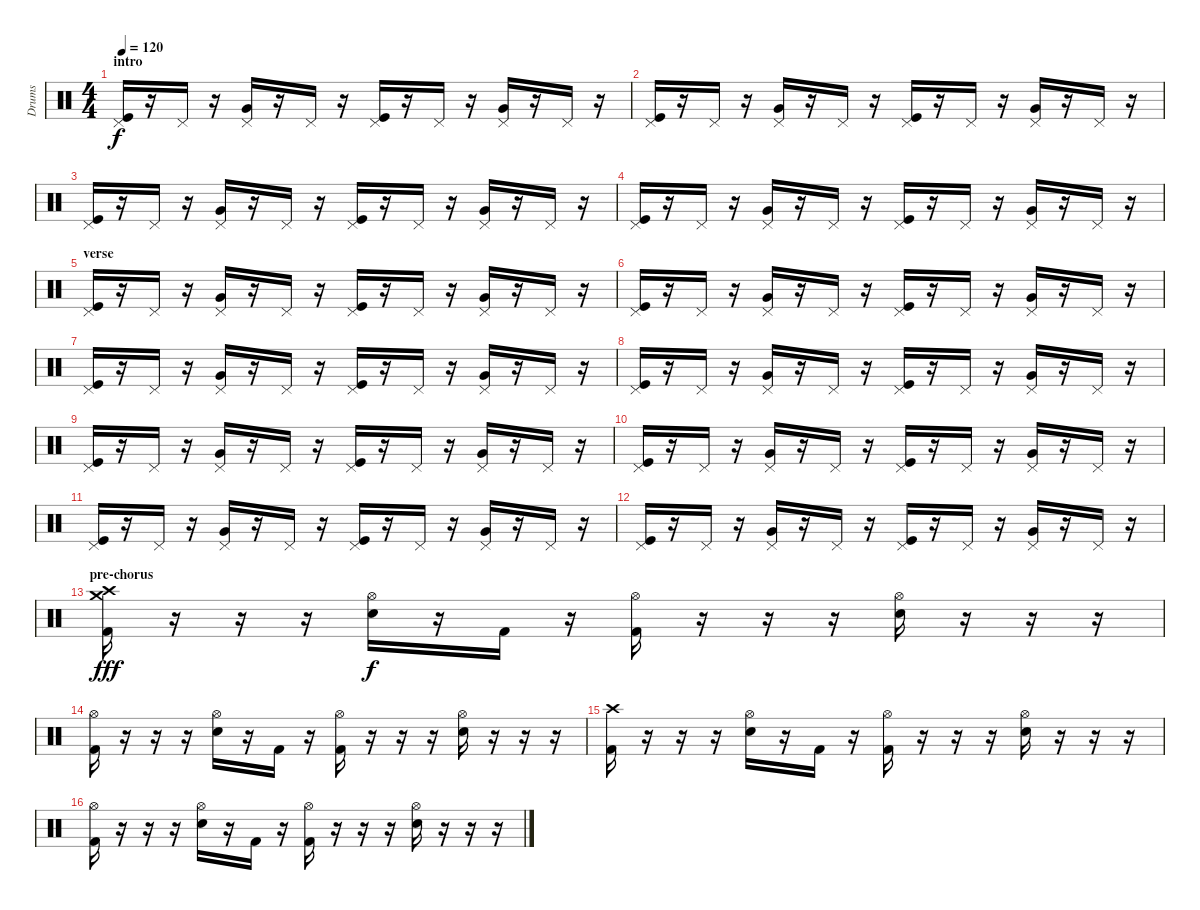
\track ("Drums" "Drums") {instrument percussion}
\staff {score}
\articulation defaults
\ts (4 4)
\section ("" "intro")
\tempo 120
\clef neutral
\ks c
("Pedal Hi-Hat (hit)" "Kick (hit)").16{dy f} r.16 "Pedal Hi-Hat (hit)".16 r.16 ("Pedal Hi-Hat (hit)" "Very Low Tom (hit)").16 r.16 "Pedal Hi-Hat (hit)".16 r.16 ("Pedal Hi-Hat (hit)" "Kick (hit)").16 r.16 "Pedal Hi-Hat (hit)".16 r.16 ("Pedal Hi-Hat (hit)" "Very Low Tom (hit)").16 r.16 "Pedal Hi-Hat (hit)".16 r.16 |
("Pedal Hi-Hat (hit)" "Kick (hit)").16 r.16 "Pedal Hi-Hat (hit)".16 r.16 ("Pedal Hi-Hat (hit)" "Very Low Tom (hit)").16 r.16 "Pedal Hi-Hat (hit)".16 r.16 ("Pedal Hi-Hat (hit)" "Kick (hit)").16 r.16 "Pedal Hi-Hat (hit)".16 r.16 ("Pedal Hi-Hat (hit)" "Very Low Tom (hit)").16 r.16 "Pedal Hi-Hat (hit)".16 r.16 |
("Pedal Hi-Hat (hit)" "Kick (hit)").16 r.16 "Pedal Hi-Hat (hit)".16 r.16 ("Pedal Hi-Hat (hit)" "Very Low Tom (hit)").16 r.16 "Pedal Hi-Hat (hit)".16 r.16 ("Pedal Hi-Hat (hit)" "Kick (hit)").16 r.16 "Pedal Hi-Hat (hit)".16 r.16 ("Pedal Hi-Hat (hit)" "Very Low Tom (hit)").16 r.16 "Pedal Hi-Hat (hit)".16 r.16 |
("Pedal Hi-Hat (hit)" "Kick (hit)").16 r.16 "Pedal Hi-Hat (hit)".16 r.16 ("Pedal Hi-Hat (hit)" "Very Low Tom (hit)").16 r.16 "Pedal Hi-Hat (hit)".16 r.16 ("Pedal Hi-Hat (hit)" "Kick (hit)").16 r.16 "Pedal Hi-Hat (hit)".16 r.16 ("Pedal Hi-Hat (hit)" "Very Low Tom (hit)").16 r.16 "Pedal Hi-Hat (hit)".16 r.16 |
\section ("" "verse")
("Pedal Hi-Hat (hit)" "Kick (hit)").16 r.16 "Pedal Hi-Hat (hit)".16 r.16 ("Pedal Hi-Hat (hit)" "Very Low Tom (hit)").16 r.16 "Pedal Hi-Hat (hit)".16 r.16 ("Pedal Hi-Hat (hit)" "Kick (hit)").16 r.16 "Pedal Hi-Hat (hit)".16 r.16 ("Pedal Hi-Hat (hit)" "Very Low Tom (hit)").16 r.16 "Pedal Hi-Hat (hit)".16 r.16 |
("Pedal Hi-Hat (hit)" "Kick (hit)").16 r.16 "Pedal Hi-Hat (hit)".16 r.16 ("Pedal Hi-Hat (hit)" "Very Low Tom (hit)").16 r.16 "Pedal Hi-Hat (hit)".16 r.16 ("Pedal Hi-Hat (hit)" "Kick (hit)").16 r.16 "Pedal Hi-Hat (hit)".16 r.16 ("Pedal Hi-Hat (hit)" "Very Low Tom (hit)").16 r.16 "Pedal Hi-Hat (hit)".16 r.16 |
("Pedal Hi-Hat (hit)" "Kick (hit)").16 r.16 "Pedal Hi-Hat (hit)".16 r.16 ("Pedal Hi-Hat (hit)" "Very Low Tom (hit)").16 r.16 "Pedal Hi-Hat (hit)".16 r.16 ("Pedal Hi-Hat (hit)" "Kick (hit)").16 r.16 "Pedal Hi-Hat (hit)".16 r.16 ("Pedal Hi-Hat (hit)" "Very Low Tom (hit)").16 r.16 "Pedal Hi-Hat (hit)".16 r.16 |
("Pedal Hi-Hat (hit)" "Kick (hit)").16 r.16 "Pedal Hi-Hat (hit)".16 r.16 ("Pedal Hi-Hat (hit)" "Very Low Tom (hit)").16 r.16 "Pedal Hi-Hat (hit)".16 r.16 ("Pedal Hi-Hat (hit)" "Kick (hit)").16 r.16 "Pedal Hi-Hat (hit)".16 r.16 ("Pedal Hi-Hat (hit)" "Very Low Tom (hit)").16 r.16 "Pedal Hi-Hat (hit)".16 r.16 |
("Pedal Hi-Hat (hit)" "Kick (hit)").16 r.16 "Pedal Hi-Hat (hit)".16 r.16 ("Pedal Hi-Hat (hit)" "Very Low Tom (hit)").16 r.16 "Pedal Hi-Hat (hit)".16 r.16 ("Pedal Hi-Hat (hit)" "Kick (hit)").16 r.16 "Pedal Hi-Hat (hit)".16 r.16 ("Pedal Hi-Hat (hit)" "Very Low Tom (hit)").16 r.16 "Pedal Hi-Hat (hit)".16 r.16 |
("Pedal Hi-Hat (hit)" "Kick (hit)").16 r.16 "Pedal Hi-Hat (hit)".16 r.16 ("Pedal Hi-Hat (hit)" "Very Low Tom (hit)").16 r.16 "Pedal Hi-Hat (hit)".16 r.16 ("Pedal Hi-Hat (hit)" "Kick (hit)").16 r.16 "Pedal Hi-Hat (hit)".16 r.16 ("Pedal Hi-Hat (hit)" "Very Low Tom (hit)").16 r.16 "Pedal Hi-Hat (hit)".16 r.16 |
("Pedal Hi-Hat (hit)" "Kick (hit)").16 r.16 "Pedal Hi-Hat (hit)".16 r.16 ("Pedal Hi-Hat (hit)" "Very Low Tom (hit)").16 r.16 "Pedal Hi-Hat (hit)".16 r.16 ("Pedal Hi-Hat (hit)" "Kick (hit)").16 r.16 "Pedal Hi-Hat (hit)".16 r.16 ("Pedal Hi-Hat (hit)" "Very Low Tom (hit)").16 r.16 "Pedal Hi-Hat (hit)".16 r.16 |
("Pedal Hi-Hat (hit)" "Kick (hit)").16 r.16 "Pedal Hi-Hat (hit)".16 r.16 ("Pedal Hi-Hat (hit)" "Very Low Tom (hit)").16 r.16 "Pedal Hi-Hat (hit)".16 r.16 ("Pedal Hi-Hat (hit)" "Kick (hit)").16 r.16 "Pedal Hi-Hat (hit)".16 r.16 ("Pedal Hi-Hat (hit)" "Very Low Tom (hit)").16 r.16 "Pedal Hi-Hat (hit)".16 r.16 |
\section ("" "pre-chorus")
("Crash high (hit)" "Crash medium (hit)" "Kick (hit) 2").16{dy fff volume 14} r.16 r.16 r.16 ("Hi-Hat (open)" "Electric Snare (hit)").16{dy f} r.16 "Kick (hit) 2".16 r.16 ("Hi-Hat (open)" "Kick (hit) 2").16 r.16 r.16 r.16 ("Hi-Hat (open)" "Electric Snare (hit)").16 r.16 r.16 r.16 |
("Hi-Hat (open)" "Kick (hit) 2").16 r.16 r.16 r.16 ("Hi-Hat (open)" "Electric Snare (hit)").16 r.16 "Kick (hit) 2".16 r.16 ("Hi-Hat (open)" "Kick (hit) 2").16 r.16 r.16 r.16 ("Hi-Hat (open)" "Electric Snare (hit)").16 r.16 r.16 r.16 |
("Crash high (hit)" "Kick (hit) 2").16 r.16 r.16 r.16 ("Hi-Hat (open)" "Electric Snare (hit)").16 r.16 "Kick (hit) 2".16 r.16 ("Hi-Hat (open)" "Kick (hit) 2").16 r.16 r.16 r.16 ("Hi-Hat (open)" "Electric Snare (hit)").16 r.16 r.16 r.16 |
("Hi-Hat (open)" "Kick (hit) 2").16 r.16 r.16 r.16 ("Hi-Hat (open)" "Electric Snare (hit)").16 r.16 "Kick (hit) 2".16 r.16 ("Hi-Hat (open)" "Kick (hit) 2").16 r.16 r.16 r.16 ("Hi-Hat (open)" "Electric Snare (hit)").16 r.16 r.16 r.16
